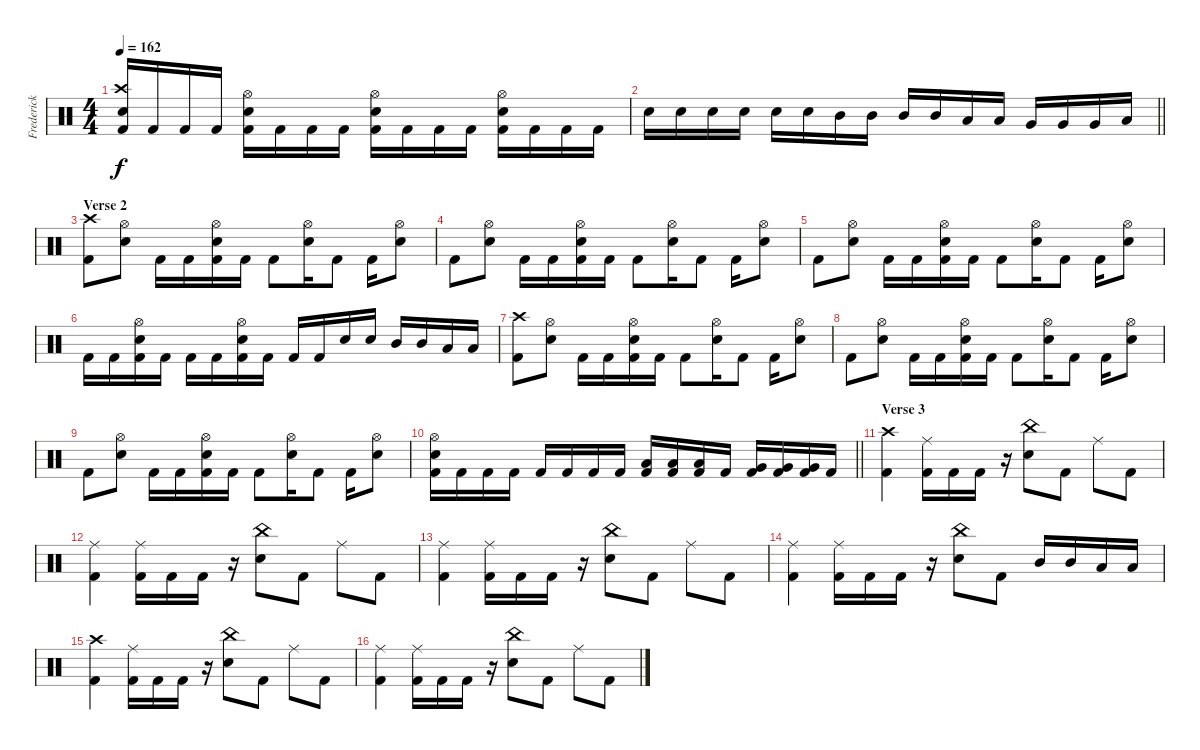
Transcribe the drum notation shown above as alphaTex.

\track ("Frederick Ehmke" "Frederick ") {instrument percussion}
\staff {score}
\articulation defaults
\ts (4 4)
\tempo 162
\clef neutral
\ks c
("Electric Snare (hit)" "Crash high (hit)" "Kick (hit) 2").16{dy f} "Kick (hit) 2".16 "Kick (hit) 2".16 "Kick (hit) 2".16 ("Electric Snare (hit)" "Hi-Hat (open)" "Kick (hit) 2").16 "Kick (hit) 2".16 "Kick (hit) 2".16 "Kick (hit) 2".16 ("Electric Snare (hit)" "Hi-Hat (open)" "Kick (hit) 2").16 "Kick (hit) 2".16 "Kick (hit) 2".16 "Kick (hit) 2".16 ("Electric Snare (hit)" "Hi-Hat (open)" "Kick (hit) 2").16 "Kick (hit) 2".16 "Kick (hit) 2".16 "Kick (hit) 2".16 |
\barLineRight lightlight "Electric Snare (hit)".16 "Electric Snare (hit)".16 "Electric Snare (hit)".16 "Electric Snare (hit)".16 "Electric Snare (hit)".16 "Electric Snare (hit)".16 "Mid Tom (hit)".16 "Mid Tom (hit)".16 "Mid Tom (hit)".16 "Mid Tom (hit)".16 "Low Tom (hit)".16 "Low Tom (hit)".16 "Very Low Tom (hit)".16 "Very Low Tom (hit)".16 "Very Low Tom (hit)".16 "Low Floor Tom (hit)".16
|
\section ("" "Verse 2")
("Crash high (hit)" "Kick (hit) 2").8 ("Electric Snare (hit)" "Hi-Hat (open)").8 "Kick (hit) 2".16 "Kick (hit) 2".16 ("Electric Snare (hit)" "Hi-Hat (open)" "Kick (hit) 2").16 "Kick (hit) 2".16 "Kick (hit) 2".8 ("Electric Snare (hit)" "Hi-Hat (open)").16 "Kick (hit) 2".8 "Kick (hit) 2".16 ("Electric Snare (hit)" "Hi-Hat (open)").8 |
"Kick (hit) 2".8 ("Electric Snare (hit)" "Hi-Hat (open)").8 "Kick (hit) 2".16 "Kick (hit) 2".16 ("Electric Snare (hit)" "Hi-Hat (open)" "Kick (hit) 2").16 "Kick (hit) 2".16 "Kick (hit) 2".8 ("Electric Snare (hit)" "Hi-Hat (open)").16 "Kick (hit) 2".8 "Kick (hit) 2".16 ("Electric Snare (hit)" "Hi-Hat (open)").8 |
"Kick (hit) 2".8 ("Electric Snare (hit)" "Hi-Hat (open)").8 "Kick (hit) 2".16 "Kick (hit) 2".16 ("Electric Snare (hit)" "Hi-Hat (open)" "Kick (hit) 2").16 "Kick (hit) 2".16 "Kick (hit) 2".8 ("Electric Snare (hit)" "Hi-Hat (open)").16 "Kick (hit) 2".8 "Kick (hit) 2".16 ("Electric Snare (hit)" "Hi-Hat (open)").8 |
"Kick (hit) 2".16 "Kick (hit) 2".16 ("Electric Snare (hit)" "Hi-Hat (open)" "Kick (hit) 2").16 "Kick (hit) 2".16 "Kick (hit) 2".16 "Kick (hit) 2".16 ("Electric Snare (hit)" "Hi-Hat (open)" "Kick (hit) 2").16 "Kick (hit) 2".16 "Kick (hit) 2".16 "Kick (hit) 2".16 "Electric Snare (hit)".16 "Electric Snare (hit)".16 "Mid Tom (hit)".16 "Mid Tom (hit)".16 "Low Tom (hit)".16 "Low Tom (hit)".16 |
("Crash high (hit)" "Kick (hit) 2").8 ("Electric Snare (hit)" "Hi-Hat (open)").8 "Kick (hit) 2".16 "Kick (hit) 2".16 ("Electric Snare (hit)" "Hi-Hat (open)" "Kick (hit) 2").16 "Kick (hit) 2".16 "Kick (hit) 2".8 ("Electric Snare (hit)" "Hi-Hat (open)").16 "Kick (hit) 2".8 "Kick (hit) 2".16 ("Electric Snare (hit)" "Hi-Hat (open)").8 |
"Kick (hit) 2".8 ("Electric Snare (hit)" "Hi-Hat (open)").8 "Kick (hit) 2".16 "Kick (hit) 2".16 ("Electric Snare (hit)" "Hi-Hat (open)" "Kick (hit) 2").16 "Kick (hit) 2".16 "Kick (hit) 2".8 ("Electric Snare (hit)" "Hi-Hat (open)").16 "Kick (hit) 2".8 "Kick (hit) 2".16 ("Electric Snare (hit)" "Hi-Hat (open)").8 |
"Kick (hit) 2".8 ("Electric Snare (hit)" "Hi-Hat (open)").8 "Kick (hit) 2".16 "Kick (hit) 2".16 ("Electric Snare (hit)" "Hi-Hat (open)" "Kick (hit) 2").16 "Kick (hit) 2".16 "Kick (hit) 2".8 ("Electric Snare (hit)" "Hi-Hat (open)").16 "Kick (hit) 2".8 "Kick (hit) 2".16 ("Electric Snare (hit)" "Hi-Hat (open)").8 |
\barLineRight lightlight
("Electric Snare (hit)" "Hi-Hat (open)" "Kick (hit) 2").16 "Kick (hit) 2".16 "Kick (hit) 2".16 "Kick (hit) 2".16 "Kick (hit) 2".16 "Kick (hit) 2".16 "Kick (hit) 2".16 "Kick (hit) 2".16 ("Low Tom (hit)" "Kick (hit) 2").16 ("Low Tom (hit)" "Kick (hit) 2").16 ("Low Tom (hit)" "Kick (hit) 2").16 "Kick (hit) 2".16 ("Very Low Tom (hit)" "Kick (hit) 2").16 ("Very Low Tom (hit)" "Kick (hit) 2").16 ("Very Low Tom (hit)" "Kick (hit) 2").16 "Kick (hit) 2".16 |
\section ("" "Verse 3")
("Crash high (hit)" "Kick (hit) 2").4 ("Ride (middle)" "Kick (hit) 2").16 "Kick (hit) 2".16 "Kick (hit) 2".16 r.16 ("Electric Snare (hit)" "China (hit)").8 "Kick (hit) 2".8 "Ride (middle)".8 "Kick (hit) 2".8 |
("Ride (middle)" "Kick (hit) 2").4 ("Ride (middle)" "Kick (hit) 2").16 "Kick (hit) 2".16 "Kick (hit) 2".16 r.16 ("Electric Snare (hit)" "China (hit)").8 "Kick (hit) 2".8 "Ride (middle)".8 "Kick (hit) 2".8 |
("Ride (middle)" "Kick (hit) 2").4 ("Ride (middle)" "Kick (hit) 2").16 "Kick (hit) 2".16 "Kick (hit) 2".16 r.16 ("Electric Snare (hit)" "China (hit)").8 "Kick (hit) 2".8 "Ride (middle)".8 "Kick (hit) 2".8 |
("Ride (middle)" "Kick (hit) 2").4 ("Ride (middle)" "Kick (hit) 2").16 "Kick (hit) 2".16 "Kick (hit) 2".16 r.16 ("Electric Snare (hit)" "China (hit)").8 "Kick (hit) 2".8 "Mid Tom (hit)".16 "Mid Tom (hit)".16 "Low Tom (hit)".16 "Low Tom (hit)".16 |
("Crash high (hit)" "Kick (hit) 2").4 ("Ride (middle)" "Kick (hit) 2").16 "Kick (hit) 2".16 "Kick (hit) 2".16 r.16 ("Electric Snare (hit)" "China (hit)").8 "Kick (hit) 2".8 "Ride (middle)".8 "Kick (hit) 2".8 |
("Ride (middle)" "Kick (hit) 2").4 ("Ride (middle)" "Kick (hit) 2").16 "Kick (hit) 2".16 "Kick (hit) 2".16 r.16 ("Electric Snare (hit)" "China (hit)").8 "Kick (hit) 2".8 "Ride (middle)".8 "Kick (hit) 2".8
